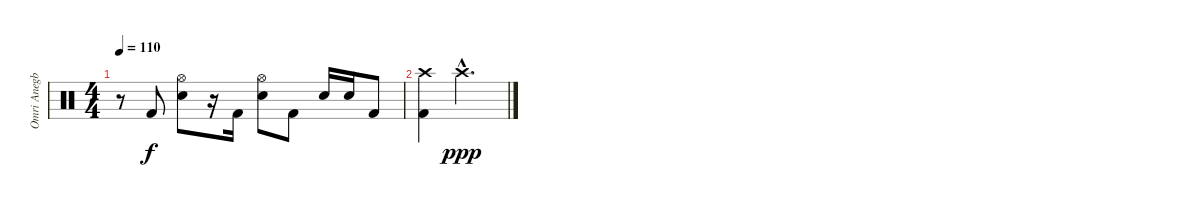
\track ("Omri Anegbi" "Omri Anegb") {instrument percussion}
\staff {score}
\articulation defaults
\ts (4 4)
\tempo 110
\clef neutral
\ks c
r.8{dy f} "Kick (hit) 2".8 ("Hi-Hat (open)" "Snare (hit) 2").8 r.16 "Kick (hit) 2".16 ("Hi-Hat (open)" "Snare (hit) 2").8 "Kick (hit) 2".8 "Snare (hit) 2".16 "Snare (hit) 2".16 "Kick (hit) 2".8 |
("Crash high (hit)" "Kick (hit) 2").4 "Crash high (hit)"{hac}.2{d dy ppp}
